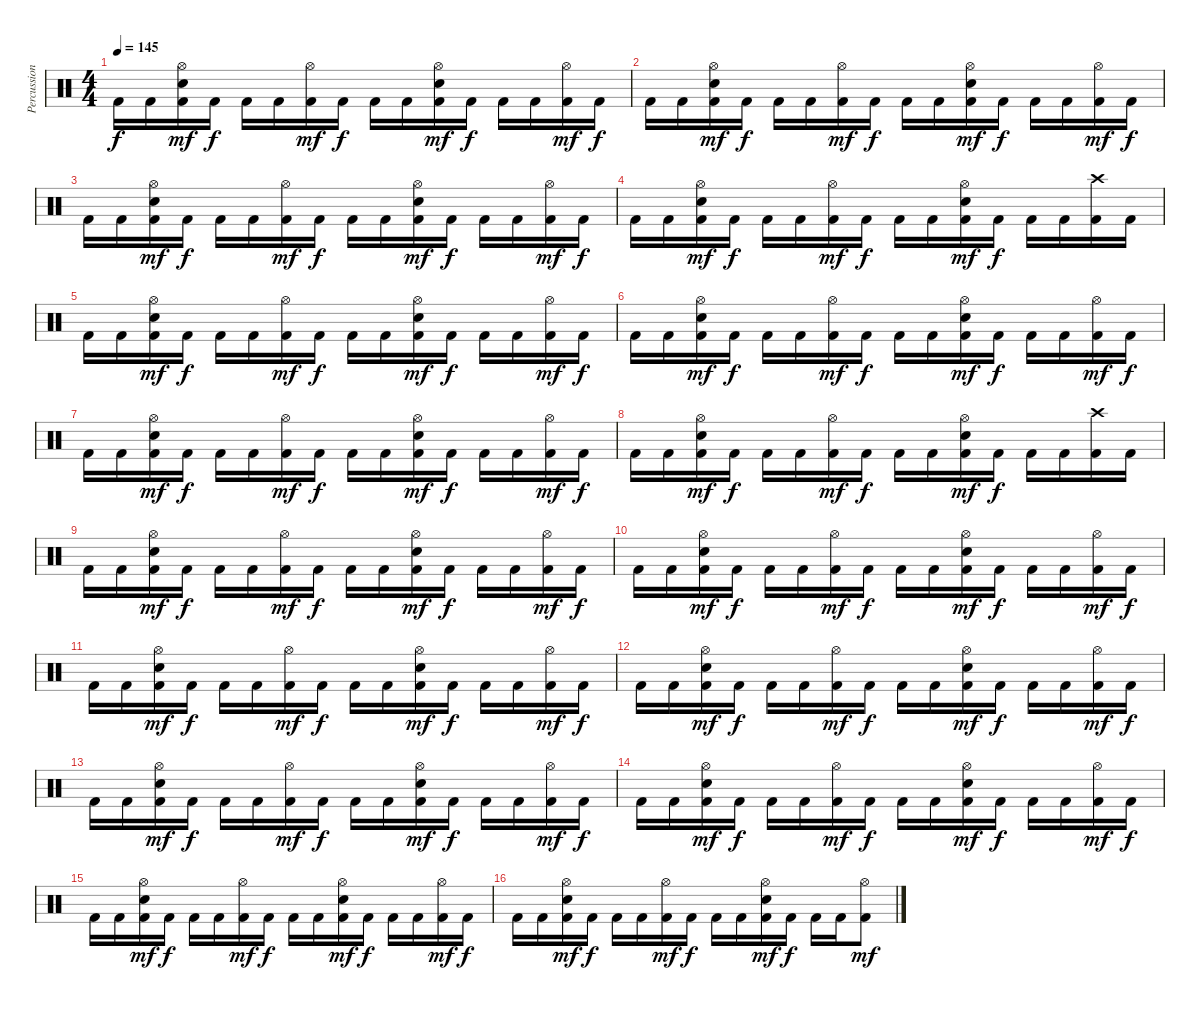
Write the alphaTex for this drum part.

\track ("Percussioni" "Percussion") {instrument percussion}
\staff {score}
\articulation defaults
\ts (4 4)
\tempo 145
\clef neutral
\ks c "Kick (hit) 2".16{dy f} "Kick (hit) 2".16
("Kick (hit) 2" "Snare (hit) 2" "Hi-Hat (open)").16{dy mf} "Kick (hit) 2".16{dy f} "Kick (hit) 2".16 "Kick (hit) 2".16 ("Kick (hit) 2" "Hi-Hat (open)").16{dy mf} "Kick (hit) 2".16{dy f} "Kick (hit) 2".16 "Kick (hit) 2".16 ("Kick (hit) 2" "Snare (hit) 2" "Hi-Hat (open)").16{dy mf} "Kick (hit) 2".16{dy f} "Kick (hit) 2".16 "Kick (hit) 2".16 ("Kick (hit) 2" "Hi-Hat (open)").16{dy mf} "Kick (hit) 2".16{dy f} |
"Kick (hit) 2".16 "Kick (hit) 2".16 ("Kick (hit) 2" "Snare (hit) 2" "Hi-Hat (open)").16{dy mf} "Kick (hit) 2".16{dy f} "Kick (hit) 2".16 "Kick (hit) 2".16 ("Kick (hit) 2" "Hi-Hat (open)").16{dy mf} "Kick (hit) 2".16{dy f} "Kick (hit) 2".16 "Kick (hit) 2".16 ("Kick (hit) 2" "Snare (hit) 2" "Hi-Hat (open)").16{dy mf} "Kick (hit) 2".16{dy f} "Kick (hit) 2".16 "Kick (hit) 2".16 ("Kick (hit) 2" "Hi-Hat (open)").16{dy mf} "Kick (hit) 2".16{dy f} |
"Kick (hit) 2".16 "Kick (hit) 2".16 ("Kick (hit) 2" "Snare (hit) 2" "Hi-Hat (open)").16{dy mf} "Kick (hit) 2".16{dy f} "Kick (hit) 2".16 "Kick (hit) 2".16 ("Kick (hit) 2" "Hi-Hat (open)").16{dy mf} "Kick (hit) 2".16{dy f} "Kick (hit) 2".16 "Kick (hit) 2".16 ("Kick (hit) 2" "Snare (hit) 2" "Hi-Hat (open)").16{dy mf} "Kick (hit) 2".16{dy f} "Kick (hit) 2".16 "Kick (hit) 2".16 ("Kick (hit) 2" "Hi-Hat (open)").16{dy mf} "Kick (hit) 2".16{dy f} |
"Kick (hit) 2".16 "Kick (hit) 2".16 ("Kick (hit) 2" "Snare (hit) 2" "Hi-Hat (open)").16{dy mf} "Kick (hit) 2".16{dy f} "Kick (hit) 2".16 "Kick (hit) 2".16 ("Kick (hit) 2" "Hi-Hat (open)").16{dy mf} "Kick (hit) 2".16{dy f} "Kick (hit) 2".16 "Kick (hit) 2".16 ("Kick (hit) 2" "Snare (hit) 2" "Hi-Hat (open)").16{dy mf} "Kick (hit) 2".16{dy f} "Kick (hit) 2".16 "Kick (hit) 2".16 ("Kick (hit) 2" "Crash high (hit)").16 "Kick (hit) 2".16 |
"Kick (hit) 2".16 "Kick (hit) 2".16 ("Kick (hit) 2" "Snare (hit) 2" "Hi-Hat (open)").16{dy mf} "Kick (hit) 2".16{dy f} "Kick (hit) 2".16 "Kick (hit) 2".16 ("Kick (hit) 2" "Hi-Hat (open)").16{dy mf} "Kick (hit) 2".16{dy f} "Kick (hit) 2".16 "Kick (hit) 2".16 ("Kick (hit) 2" "Snare (hit) 2" "Hi-Hat (open)").16{dy mf} "Kick (hit) 2".16{dy f} "Kick (hit) 2".16 "Kick (hit) 2".16 ("Kick (hit) 2" "Hi-Hat (open)").16{dy mf} "Kick (hit) 2".16{dy f} |
"Kick (hit) 2".16 "Kick (hit) 2".16 ("Kick (hit) 2" "Snare (hit) 2" "Hi-Hat (open)").16{dy mf} "Kick (hit) 2".16{dy f} "Kick (hit) 2".16 "Kick (hit) 2".16 ("Kick (hit) 2" "Hi-Hat (open)").16{dy mf} "Kick (hit) 2".16{dy f} "Kick (hit) 2".16 "Kick (hit) 2".16 ("Kick (hit) 2" "Snare (hit) 2" "Hi-Hat (open)").16{dy mf} "Kick (hit) 2".16{dy f} "Kick (hit) 2".16 "Kick (hit) 2".16 ("Kick (hit) 2" "Hi-Hat (open)").16{dy mf} "Kick (hit) 2".16{dy f} |
"Kick (hit) 2".16 "Kick (hit) 2".16 ("Kick (hit) 2" "Snare (hit) 2" "Hi-Hat (open)").16{dy mf} "Kick (hit) 2".16{dy f} "Kick (hit) 2".16 "Kick (hit) 2".16 ("Kick (hit) 2" "Hi-Hat (open)").16{dy mf} "Kick (hit) 2".16{dy f} "Kick (hit) 2".16 "Kick (hit) 2".16 ("Kick (hit) 2" "Snare (hit) 2" "Hi-Hat (open)").16{dy mf} "Kick (hit) 2".16{dy f} "Kick (hit) 2".16 "Kick (hit) 2".16 ("Kick (hit) 2" "Hi-Hat (open)").16{dy mf} "Kick (hit) 2".16{dy f} |
"Kick (hit) 2".16 "Kick (hit) 2".16 ("Kick (hit) 2" "Snare (hit) 2" "Hi-Hat (open)").16{dy mf} "Kick (hit) 2".16{dy f} "Kick (hit) 2".16 "Kick (hit) 2".16 ("Kick (hit) 2" "Hi-Hat (open)").16{dy mf} "Kick (hit) 2".16{dy f} "Kick (hit) 2".16 "Kick (hit) 2".16 ("Kick (hit) 2" "Snare (hit) 2" "Hi-Hat (open)").16{dy mf} "Kick (hit) 2".16{dy f} "Kick (hit) 2".16 "Kick (hit) 2".16 ("Kick (hit) 2" "Crash high (hit)").16 "Kick (hit) 2".16 |
"Kick (hit) 2".16 "Kick (hit) 2".16 ("Kick (hit) 2" "Snare (hit) 2" "Hi-Hat (open)").16{dy mf} "Kick (hit) 2".16{dy f} "Kick (hit) 2".16 "Kick (hit) 2".16 ("Kick (hit) 2" "Hi-Hat (open)").16{dy mf} "Kick (hit) 2".16{dy f} "Kick (hit) 2".16 "Kick (hit) 2".16 ("Kick (hit) 2" "Snare (hit) 2" "Hi-Hat (open)").16{dy mf} "Kick (hit) 2".16{dy f} "Kick (hit) 2".16 "Kick (hit) 2".16 ("Kick (hit) 2" "Hi-Hat (open)").16{dy mf} "Kick (hit) 2".16{dy f} |
"Kick (hit) 2".16 "Kick (hit) 2".16 ("Kick (hit) 2" "Snare (hit) 2" "Hi-Hat (open)").16{dy mf} "Kick (hit) 2".16{dy f} "Kick (hit) 2".16 "Kick (hit) 2".16 ("Kick (hit) 2" "Hi-Hat (open)").16{dy mf} "Kick (hit) 2".16{dy f} "Kick (hit) 2".16 "Kick (hit) 2".16 ("Kick (hit) 2" "Snare (hit) 2" "Hi-Hat (open)").16{dy mf} "Kick (hit) 2".16{dy f} "Kick (hit) 2".16 "Kick (hit) 2".16 ("Kick (hit) 2" "Hi-Hat (open)").16{dy mf} "Kick (hit) 2".16{dy f} |
"Kick (hit) 2".16 "Kick (hit) 2".16 ("Kick (hit) 2" "Snare (hit) 2" "Hi-Hat (open)").16{dy mf} "Kick (hit) 2".16{dy f} "Kick (hit) 2".16 "Kick (hit) 2".16 ("Kick (hit) 2" "Hi-Hat (open)").16{dy mf} "Kick (hit) 2".16{dy f} "Kick (hit) 2".16 "Kick (hit) 2".16 ("Kick (hit) 2" "Snare (hit) 2" "Hi-Hat (open)").16{dy mf} "Kick (hit) 2".16{dy f} "Kick (hit) 2".16 "Kick (hit) 2".16 ("Kick (hit) 2" "Hi-Hat (open)").16{dy mf} "Kick (hit) 2".16{dy f} |
"Kick (hit) 2".16 "Kick (hit) 2".16 ("Kick (hit) 2" "Snare (hit) 2" "Hi-Hat (open)").16{dy mf} "Kick (hit) 2".16{dy f} "Kick (hit) 2".16 "Kick (hit) 2".16 ("Kick (hit) 2" "Hi-Hat (open)").16{dy mf} "Kick (hit) 2".16{dy f} "Kick (hit) 2".16 "Kick (hit) 2".16 ("Kick (hit) 2" "Snare (hit) 2" "Hi-Hat (open)").16{dy mf} "Kick (hit) 2".16{dy f} "Kick (hit) 2".16 "Kick (hit) 2".16 ("Kick (hit) 2" "Hi-Hat (open)").16{dy mf} "Kick (hit) 2".16{dy f} |
"Kick (hit) 2".16 "Kick (hit) 2".16 ("Kick (hit) 2" "Snare (hit) 2" "Hi-Hat (open)").16{dy mf} "Kick (hit) 2".16{dy f} "Kick (hit) 2".16 "Kick (hit) 2".16 ("Kick (hit) 2" "Hi-Hat (open)").16{dy mf} "Kick (hit) 2".16{dy f} "Kick (hit) 2".16 "Kick (hit) 2".16 ("Kick (hit) 2" "Snare (hit) 2" "Hi-Hat (open)").16{dy mf} "Kick (hit) 2".16{dy f} "Kick (hit) 2".16 "Kick (hit) 2".16 ("Kick (hit) 2" "Hi-Hat (open)").16{dy mf} "Kick (hit) 2".16{dy f} |
"Kick (hit) 2".16 "Kick (hit) 2".16 ("Kick (hit) 2" "Snare (hit) 2" "Hi-Hat (open)").16{dy mf} "Kick (hit) 2".16{dy f} "Kick (hit) 2".16 "Kick (hit) 2".16 ("Kick (hit) 2" "Hi-Hat (open)").16{dy mf} "Kick (hit) 2".16{dy f} "Kick (hit) 2".16 "Kick (hit) 2".16 ("Kick (hit) 2" "Snare (hit) 2" "Hi-Hat (open)").16{dy mf} "Kick (hit) 2".16{dy f} "Kick (hit) 2".16 "Kick (hit) 2".16 ("Kick (hit) 2" "Hi-Hat (open)").16{dy mf} "Kick (hit) 2".16{dy f} |
"Kick (hit) 2".16 "Kick (hit) 2".16 ("Kick (hit) 2" "Snare (hit) 2" "Hi-Hat (open)").16{dy mf} "Kick (hit) 2".16{dy f} "Kick (hit) 2".16 "Kick (hit) 2".16 ("Kick (hit) 2" "Hi-Hat (open)").16{dy mf} "Kick (hit) 2".16{dy f} "Kick (hit) 2".16 "Kick (hit) 2".16 ("Kick (hit) 2" "Snare (hit) 2" "Hi-Hat (open)").16{dy mf} "Kick (hit) 2".16{dy f} "Kick (hit) 2".16 "Kick (hit) 2".16 ("Kick (hit) 2" "Hi-Hat (open)").16{dy mf} "Kick (hit) 2".16{dy f} |
"Kick (hit) 2".16 "Kick (hit) 2".16 ("Kick (hit) 2" "Snare (hit) 2" "Hi-Hat (open)").16{dy mf} "Kick (hit) 2".16{dy f} "Kick (hit) 2".16 "Kick (hit) 2".16 ("Kick (hit) 2" "Hi-Hat (open)").16{dy mf} "Kick (hit) 2".16{dy f} "Kick (hit) 2".16 "Kick (hit) 2".16 ("Kick (hit) 2" "Snare (hit) 2" "Hi-Hat (open)").16{dy mf} "Kick (hit) 2".16{dy f} "Kick (hit) 2".16 "Kick (hit) 2".16 ("Kick (hit) 2" "Hi-Hat (open)").8{dy mf}
